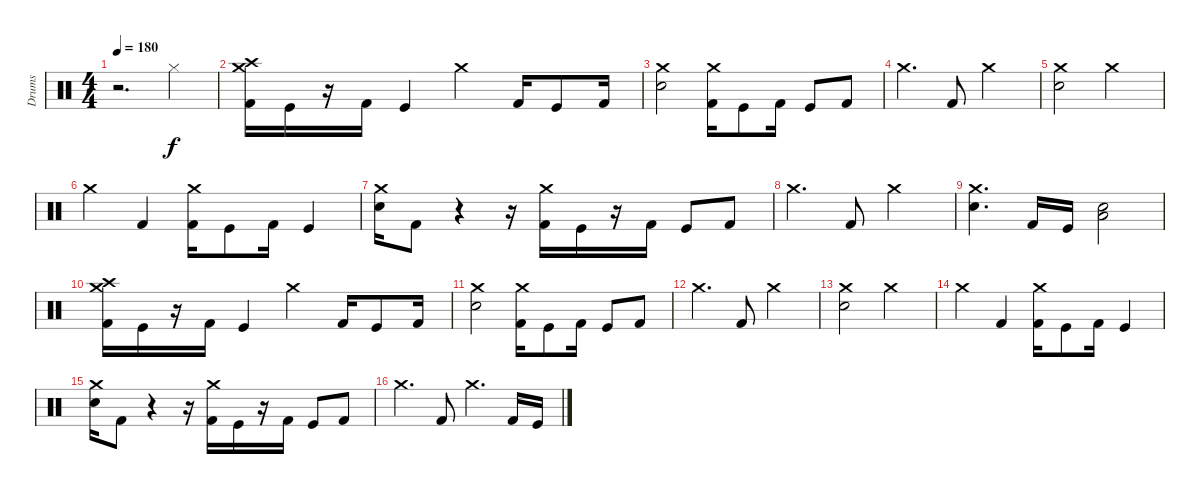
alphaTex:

\track ("Drums" "Drums") {instrument percussion}
\staff {score}
\articulation defaults
\ts (4 4)
\tempo 180
\clef neutral
\ks c
r.2{d dy f} "Hi-Hat (closed)".4 |
("Crash medium (hit)" "Crash high (hit)" "Kick (hit) 2").16 "Kick (hit)".16 r.16 "Kick (hit) 2".16 "Kick (hit)".4 "Crash medium (hit)".4 "Kick (hit) 2".16 "Kick (hit)".8 "Kick (hit) 2".16 |
("Crash medium (hit)" "Electric Snare (hit)").2 ("Crash medium (hit)" "Kick (hit) 2").16 "Kick (hit)".8 "Kick (hit) 2".16 "Kick (hit)".8 "Kick (hit) 2".8 |
"Crash medium (hit)".4{d} "Kick (hit) 2".8 "Crash medium (hit)".2 |
("Crash medium (hit)" "Electric Snare (hit)").2 "Crash medium (hit)".2 |
"Crash medium (hit)".4 "Kick (hit) 2".4 ("Crash medium (hit)" "Kick (hit) 2").16 "Kick (hit)".8 "Kick (hit) 2".16 "Kick (hit)".4 |
("Crash medium (hit)" "Electric Snare (hit)").16 "Kick (hit) 2".8 r.4 r.16 ("Crash medium (hit)" "Kick (hit) 2").16 "Kick (hit)".16 r.16 "Kick (hit) 2".16 "Kick (hit)".8 "Kick (hit) 2".8 |
"Crash medium (hit)".4{d} "Kick (hit) 2".8 "Crash medium (hit)".2 |
("Crash medium (hit)" "Electric Snare (hit)").4{d} "Kick (hit) 2".16 "Kick (hit)".16 ("Low Tom (hit)" "Electric Snare (hit)").2 |
("Crash medium (hit)" "Crash high (hit)" "Kick (hit) 2").16 "Kick (hit)".16 r.16 "Kick (hit) 2".16 "Kick (hit)".4 "Crash medium (hit)".4 "Kick (hit) 2".16 "Kick (hit)".8 "Kick (hit) 2".16 |
("Crash medium (hit)" "Electric Snare (hit)").2 ("Crash medium (hit)" "Kick (hit) 2").16 "Kick (hit)".8 "Kick (hit) 2".16 "Kick (hit)".8 "Kick (hit) 2".8 |
"Crash medium (hit)".4{d} "Kick (hit) 2".8 "Crash medium (hit)".2 |
("Crash medium (hit)" "Electric Snare (hit)").2 "Crash medium (hit)".2 |
"Crash medium (hit)".4 "Kick (hit) 2".4 ("Crash medium (hit)" "Kick (hit) 2").16 "Kick (hit)".8 "Kick (hit) 2".16 "Kick (hit)".4 |
("Crash medium (hit)" "Electric Snare (hit)").16 "Kick (hit) 2".8 r.4 r.16 ("Crash medium (hit)" "Kick (hit) 2").16 "Kick (hit)".16 r.16 "Kick (hit) 2".16 "Kick (hit)".8 "Kick (hit) 2".8 |
"Crash medium (hit)".4{d} "Kick (hit) 2".8 "Crash medium (hit)".4{d} "Kick (hit) 2".16 "Kick (hit)".16
